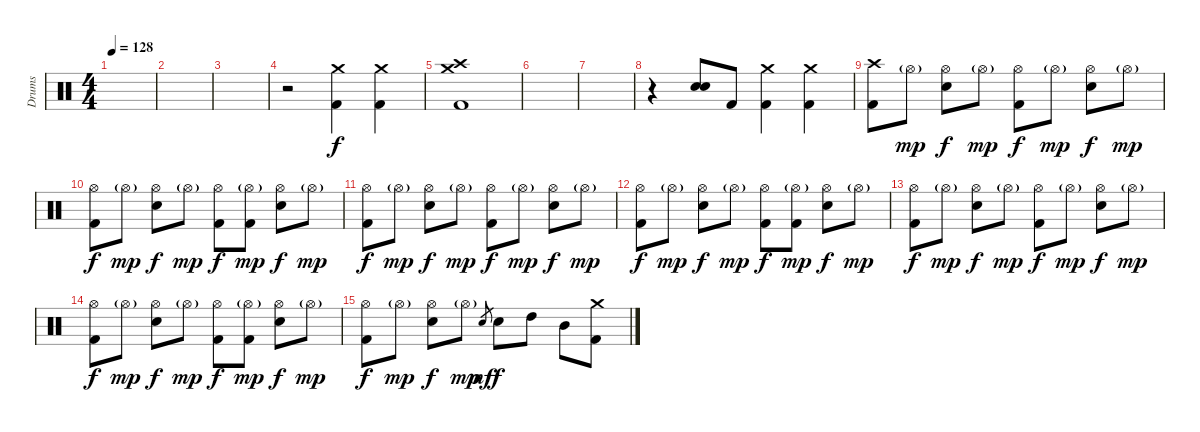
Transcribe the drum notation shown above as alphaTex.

\track ("Drums" "Drums") {instrument percussion}
\staff {score}
\articulation defaults
\ts (4 4)
\tempo 128
\clef neutral
\ks c
|
|
|
r.2 ("Crash medium (hit)" "Kick (hit) 2").4 ("Crash medium (hit)" "Kick (hit) 2").4 |
("Crash medium (hit)" "Crash high (hit)" "Kick (hit) 2").1 |
|
|
r.4 ("Electric Snare (hit)" "Electric Snare (hit)").8 "Kick (hit) 2".8 ("Crash medium (hit)" "Kick (hit) 2").4 ("Crash medium (hit)" "Kick (hit) 2").4 |
("Crash high (hit)" "Kick (hit) 2").8 "Hi-Hat (open)"{g}.8{dy mp} ("Hi-Hat (open)" "Electric Snare (hit)").8{dy f} "Hi-Hat (open)"{g}.8{dy mp} ("Hi-Hat (open)" "Kick (hit) 2").8{dy f} "Hi-Hat (open)"{g}.8{dy mp} ("Hi-Hat (open)" "Electric Snare (hit)").8{dy f} "Hi-Hat (open)"{g}.8{dy mp} |
("Hi-Hat (open)" "Kick (hit) 2").8{dy f} "Hi-Hat (open)"{g}.8{dy mp} ("Hi-Hat (open)" "Electric Snare (hit)").8{dy f} "Hi-Hat (open)"{g}.8{dy mp} ("Hi-Hat (open)" "Kick (hit) 2").8{dy f} ("Hi-Hat (open)"{g} "Kick (hit) 2").8{dy mp} ("Hi-Hat (open)" "Electric Snare (hit)").8{dy f} "Hi-Hat (open)"{g}.8{dy mp} |
("Hi-Hat (open)" "Kick (hit) 2").8{dy f} "Hi-Hat (open)"{g}.8{dy mp} ("Hi-Hat (open)" "Electric Snare (hit)").8{dy f} "Hi-Hat (open)"{g}.8{dy mp} ("Hi-Hat (open)" "Kick (hit) 2").8{dy f} "Hi-Hat (open)"{g}.8{dy mp} ("Hi-Hat (open)" "Electric Snare (hit)").8{dy f} "Hi-Hat (open)"{g}.8{dy mp} |
("Hi-Hat (open)" "Kick (hit) 2").8{dy f} "Hi-Hat (open)"{g}.8{dy mp} ("Hi-Hat (open)" "Electric Snare (hit)").8{dy f} "Hi-Hat (open)"{g}.8{dy mp} ("Hi-Hat (open)" "Kick (hit) 2").8{dy f} ("Hi-Hat (open)"{g} "Kick (hit) 2").8{dy mp} ("Hi-Hat (open)" "Electric Snare (hit)").8{dy f} "Hi-Hat (open)"{g}.8{dy mp} |
("Hi-Hat (open)" "Kick (hit) 2").8{dy f} "Hi-Hat (open)"{g}.8{dy mp} ("Hi-Hat (open)" "Electric Snare (hit)").8{dy f} "Hi-Hat (open)"{g}.8{dy mp} ("Hi-Hat (open)" "Kick (hit) 2").8{dy f} "Hi-Hat (open)"{g}.8{dy mp} ("Hi-Hat (open)" "Electric Snare (hit)").8{dy f} "Hi-Hat (open)"{g}.8{dy mp} |
("Hi-Hat (open)" "Kick (hit) 2").8{dy f} "Hi-Hat (open)"{g}.8{dy mp} ("Hi-Hat (open)" "Electric Snare (hit)").8{dy f} "Hi-Hat (open)"{g}.8{dy mp} ("Hi-Hat (open)" "Kick (hit) 2").8{dy f} ("Hi-Hat (open)"{g} "Kick (hit) 2").8{dy mp} ("Hi-Hat (open)" "Electric Snare (hit)").8{dy f} "Hi-Hat (open)"{g}.8{dy mp} |
("Hi-Hat (open)" "Kick (hit) 2").8{dy f} "Hi-Hat (open)"{g}.8{dy mp} ("Hi-Hat (open)" "Electric Snare (hit)").8{dy f} "Hi-Hat (open)"{g}.8{dy mp} "Electric Snare (hit)".8{gr dy mf} "Electric Snare (hit)".8{dy f} "High Tom (hit)".8 "Mid Tom (hit)".8 ("Crash medium (hit)" "Kick (hit) 2").8
